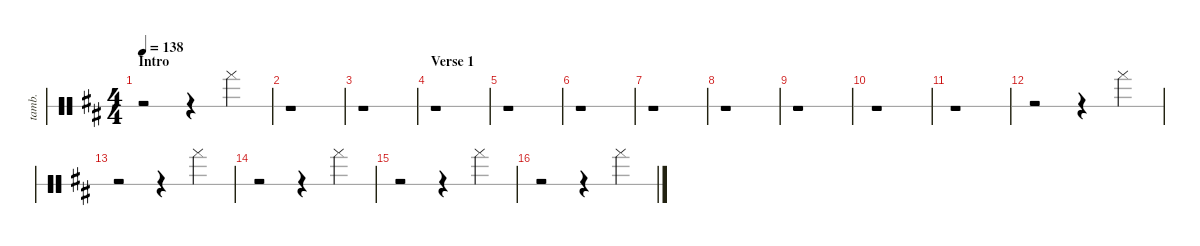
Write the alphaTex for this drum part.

\hideDynamics
\bracketExtendMode groupsimilarinstruments
\otherSystemsTrackNameOrientation horizontal
\track ("Tambourine" "tamb.") {instrument percussion}
\staff {score 1}
\articulation defaults
\ts (4 4)
\section ("" "Intro")
\tempo 138
\clef neutral
\ks d
r.2{dy mf} r.4 "Tambourine (hand)"{acc forcenatural}.4 |
r.1 |
r.1 |
\section ("" "Verse 1")
r.1 |
r.1 |
r.1 |
r.1 |
r.1 |
r.1 |
r.1 |
r.1 |
r.2 r.4 "Tambourine (hand)"{acc forcenatural}.4 |
r.2 r.4 "Tambourine (hand)"{acc forcenatural}.4 |
r.2 r.4 "Tambourine (hand)"{acc forcenatural}.4 |
r.2 r.4 "Tambourine (hand)"{acc forcenatural}.4 |
r.2 r.4 "Tambourine (hand)"{acc forcenatural}.4
